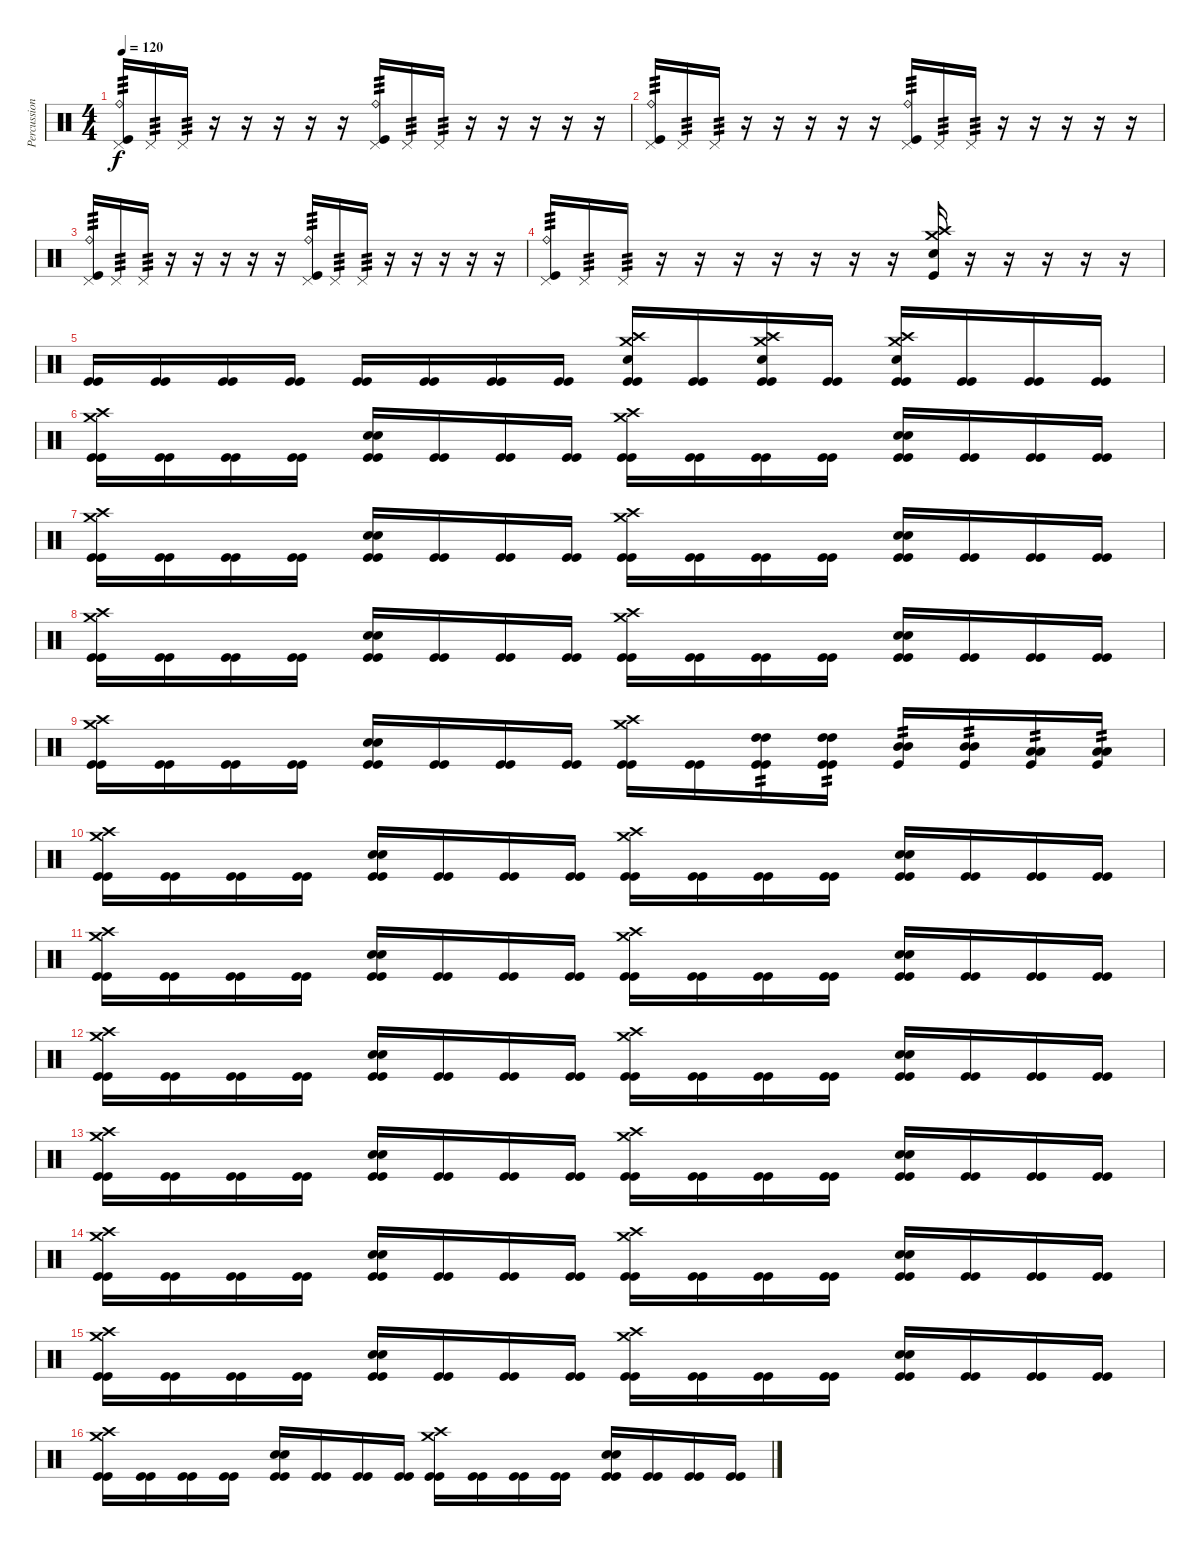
\track ("Percussions" "Percussion") {instrument percussion}
\staff {score}
\articulation defaults
\ts (4 4)
\tempo 120
\clef neutral
\ks c
("Pedal Hi-Hat (hit)" "Ride (bell)" "Kick (hit)").16{tp 3 dy f} "Pedal Hi-Hat (hit)".16{tp 3} "Pedal Hi-Hat (hit)".16{tp 3} r.16 r.16 r.16 r.16 r.16 ("Pedal Hi-Hat (hit)" "Ride (bell)" "Kick (hit)").16{tp 3} "Pedal Hi-Hat (hit)".16{tp 3} "Pedal Hi-Hat (hit)".16{tp 3} r.16 r.16 r.16 r.16 r.16 |
("Pedal Hi-Hat (hit)" "Ride (bell)" "Kick (hit)").16{tp 3} "Pedal Hi-Hat (hit)".16{tp 3} "Pedal Hi-Hat (hit)".16{tp 3} r.16 r.16 r.16 r.16 r.16 ("Pedal Hi-Hat (hit)" "Ride (bell)" "Kick (hit)").16{tp 3} "Pedal Hi-Hat (hit)".16{tp 3} "Pedal Hi-Hat (hit)".16{tp 3} r.16 r.16 r.16 r.16 r.16 |
("Pedal Hi-Hat (hit)" "Ride (bell)" "Kick (hit)").16{tp 3} "Pedal Hi-Hat (hit)".16{tp 3} "Pedal Hi-Hat (hit)".16{tp 3} r.16 r.16 r.16 r.16 r.16 ("Pedal Hi-Hat (hit)" "Ride (bell)" "Kick (hit)").16{tp 3} "Pedal Hi-Hat (hit)".16{tp 3} "Pedal Hi-Hat (hit)".16{tp 3} r.16 r.16 r.16 r.16 r.16 |
("Pedal Hi-Hat (hit)" "Ride (bell)" "Kick (hit)").16{tp 3} "Pedal Hi-Hat (hit)".16{tp 3} "Pedal Hi-Hat (hit)".16{tp 3} r.16 r.16 r.16 r.16 r.16 r.16 r.16 ("Crash high (hit)" "Crash medium (hit)" "Snare (hit) 2" "Kick (hit)").16 r.16 r.16 r.16 r.16 r.16 |
("Kick (hit)" "Kick (hit)").16 ("Kick (hit)" "Kick (hit)").16 ("Kick (hit)" "Kick (hit)").16 ("Kick (hit)" "Kick (hit)").16 ("Kick (hit)" "Kick (hit)").16 ("Kick (hit)" "Kick (hit)").16 ("Kick (hit)" "Kick (hit)").16 ("Kick (hit)" "Kick (hit)").16 ("Crash medium (hit)" "Crash high (hit)" "Snare (hit) 2" "Kick (hit)" "Kick (hit)").16 ("Kick (hit)" "Kick (hit)").16 ("Crash high (hit)" "Crash medium (hit)" "Snare (hit) 2" "Kick (hit)" "Kick (hit)").16 ("Kick (hit)" "Kick (hit)").16 ("Crash high (hit)" "Crash medium (hit)" "Snare (hit) 2" "Kick (hit)" "Kick (hit)").16 ("Kick (hit)" "Kick (hit)").16 ("Kick (hit)" "Kick (hit)").16 ("Kick (hit)" "Kick (hit)").16 |
("Crash medium (hit)" "Crash high (hit)" "Kick (hit)" "Kick (hit)").16 ("Kick (hit)" "Kick (hit)").16 ("Kick (hit)" "Kick (hit)").16 ("Kick (hit)" "Kick (hit)").16 ("Snare (hit) 2" "Snare (hit) 2" "Kick (hit)" "Kick (hit)").16 ("Kick (hit)" "Kick (hit)").16 ("Kick (hit)" "Kick (hit)").16 ("Kick (hit)" "Kick (hit)").16 ("Crash high (hit)" "Crash medium (hit)" "Kick (hit)" "Kick (hit)").16 ("Kick (hit)" "Kick (hit)").16 ("Kick (hit)" "Kick (hit)").16 ("Kick (hit)" "Kick (hit)").16 ("Snare (hit) 2" "Snare (hit) 2" "Kick (hit)" "Kick (hit)").16 ("Kick (hit)" "Kick (hit)").16 ("Kick (hit)" "Kick (hit)").16 ("Kick (hit)" "Kick (hit)").16 |
("Crash medium (hit)" "Crash high (hit)" "Kick (hit)" "Kick (hit)").16 ("Kick (hit)" "Kick (hit)").16 ("Kick (hit)" "Kick (hit)").16 ("Kick (hit)" "Kick (hit)").16 ("Snare (hit) 2" "Snare (hit) 2" "Kick (hit)" "Kick (hit)").16 ("Kick (hit)" "Kick (hit)").16 ("Kick (hit)" "Kick (hit)").16 ("Kick (hit)" "Kick (hit)").16 ("Crash high (hit)" "Crash medium (hit)" "Kick (hit)" "Kick (hit)").16 ("Kick (hit)" "Kick (hit)").16 ("Kick (hit)" "Kick (hit)").16 ("Kick (hit)" "Kick (hit)").16 ("Snare (hit) 2" "Snare (hit) 2" "Kick (hit)" "Kick (hit)").16 ("Kick (hit)" "Kick (hit)").16 ("Kick (hit)" "Kick (hit)").16 ("Kick (hit)" "Kick (hit)").16 |
("Crash medium (hit)" "Crash high (hit)" "Kick (hit)" "Kick (hit)").16 ("Kick (hit)" "Kick (hit)").16 ("Kick (hit)" "Kick (hit)").16 ("Kick (hit)" "Kick (hit)").16 ("Snare (hit) 2" "Snare (hit) 2" "Kick (hit)" "Kick (hit)").16 ("Kick (hit)" "Kick (hit)").16 ("Kick (hit)" "Kick (hit)").16 ("Kick (hit)" "Kick (hit)").16 ("Crash high (hit)" "Crash medium (hit)" "Kick (hit)" "Kick (hit)").16 ("Kick (hit)" "Kick (hit)").16 ("Kick (hit)" "Kick (hit)").16 ("Kick (hit)" "Kick (hit)").16 ("Snare (hit) 2" "Snare (hit) 2" "Kick (hit)" "Kick (hit)").16 ("Kick (hit)" "Kick (hit)").16 ("Kick (hit)" "Kick (hit)").16 ("Kick (hit)" "Kick (hit)").16 |
("Crash medium (hit)" "Crash high (hit)" "Kick (hit)" "Kick (hit)").16 ("Kick (hit)" "Kick (hit)").16 ("Kick (hit)" "Kick (hit)").16 ("Kick (hit)" "Kick (hit)").16 ("Snare (hit) 2" "Snare (hit) 2" "Kick (hit)" "Kick (hit)").16 ("Kick (hit)" "Kick (hit)").16 ("Kick (hit)" "Kick (hit)").16 ("Kick (hit)" "Kick (hit)").16 ("Crash high (hit)" "Crash medium (hit)" "Kick (hit)" "Kick (hit)").16 ("Kick (hit)" "Kick (hit)").16 ("High Tom (hit)" "High Tom (hit)" "Kick (hit)" "Kick (hit)").16{tp 2} ("High Tom (hit)" "High Tom (hit)" "Kick (hit)" "Kick (hit)").16{tp 2} ("Mid Tom (hit)" "Mid Tom (hit)" "Kick (hit)").16{tp 2} ("Mid Tom (hit)" "Mid Tom (hit)" "Kick (hit)").16{tp 2} ("Low Tom (hit)" "Low Tom (hit)" "Kick (hit)").16{tp 2} ("Low Tom (hit)" "Low Tom (hit)" "Kick (hit)").16{tp 2} |
("Crash medium (hit)" "Crash high (hit)" "Kick (hit)" "Kick (hit)").16 ("Kick (hit)" "Kick (hit)").16 ("Kick (hit)" "Kick (hit)").16 ("Kick (hit)" "Kick (hit)").16 ("Snare (hit) 2" "Snare (hit) 2" "Kick (hit)" "Kick (hit)").16 ("Kick (hit)" "Kick (hit)").16 ("Kick (hit)" "Kick (hit)").16 ("Kick (hit)" "Kick (hit)").16 ("Crash high (hit)" "Crash medium (hit)" "Kick (hit)" "Kick (hit)").16 ("Kick (hit)" "Kick (hit)").16 ("Kick (hit)" "Kick (hit)").16 ("Kick (hit)" "Kick (hit)").16 ("Snare (hit) 2" "Snare (hit) 2" "Kick (hit)" "Kick (hit)").16 ("Kick (hit)" "Kick (hit)").16 ("Kick (hit)" "Kick (hit)").16 ("Kick (hit)" "Kick (hit)").16 |
("Crash medium (hit)" "Crash high (hit)" "Kick (hit)" "Kick (hit)").16 ("Kick (hit)" "Kick (hit)").16 ("Kick (hit)" "Kick (hit)").16 ("Kick (hit)" "Kick (hit)").16 ("Snare (hit) 2" "Snare (hit) 2" "Kick (hit)" "Kick (hit)").16 ("Kick (hit)" "Kick (hit)").16 ("Kick (hit)" "Kick (hit)").16 ("Kick (hit)" "Kick (hit)").16 ("Crash high (hit)" "Crash medium (hit)" "Kick (hit)" "Kick (hit)").16 ("Kick (hit)" "Kick (hit)").16 ("Kick (hit)" "Kick (hit)").16 ("Kick (hit)" "Kick (hit)").16 ("Snare (hit) 2" "Snare (hit) 2" "Kick (hit)" "Kick (hit)").16 ("Kick (hit)" "Kick (hit)").16 ("Kick (hit)" "Kick (hit)").16 ("Kick (hit)" "Kick (hit)").16 |
("Crash medium (hit)" "Crash high (hit)" "Kick (hit)" "Kick (hit)").16 ("Kick (hit)" "Kick (hit)").16 ("Kick (hit)" "Kick (hit)").16 ("Kick (hit)" "Kick (hit)").16 ("Snare (hit) 2" "Snare (hit) 2" "Kick (hit)" "Kick (hit)").16 ("Kick (hit)" "Kick (hit)").16 ("Kick (hit)" "Kick (hit)").16 ("Kick (hit)" "Kick (hit)").16 ("Crash high (hit)" "Crash medium (hit)" "Kick (hit)" "Kick (hit)").16 ("Kick (hit)" "Kick (hit)").16 ("Kick (hit)" "Kick (hit)").16 ("Kick (hit)" "Kick (hit)").16 ("Snare (hit) 2" "Snare (hit) 2" "Kick (hit)" "Kick (hit)").16 ("Kick (hit)" "Kick (hit)").16 ("Kick (hit)" "Kick (hit)").16 ("Kick (hit)" "Kick (hit)").16 |
("Crash medium (hit)" "Crash high (hit)" "Kick (hit)" "Kick (hit)").16 ("Kick (hit)" "Kick (hit)").16 ("Kick (hit)" "Kick (hit)").16 ("Kick (hit)" "Kick (hit)").16 ("Snare (hit) 2" "Snare (hit) 2" "Kick (hit)" "Kick (hit)").16 ("Kick (hit)" "Kick (hit)").16 ("Kick (hit)" "Kick (hit)").16 ("Kick (hit)" "Kick (hit)").16 ("Crash high (hit)" "Crash medium (hit)" "Kick (hit)" "Kick (hit)").16 ("Kick (hit)" "Kick (hit)").16 ("Kick (hit)" "Kick (hit)").16 ("Kick (hit)" "Kick (hit)").16 ("Snare (hit) 2" "Snare (hit) 2" "Kick (hit)" "Kick (hit)").16 ("Kick (hit)" "Kick (hit)").16 ("Kick (hit)" "Kick (hit)").16 ("Kick (hit)" "Kick (hit)").16 |
("Crash medium (hit)" "Crash high (hit)" "Kick (hit)" "Kick (hit)").16 ("Kick (hit)" "Kick (hit)").16 ("Kick (hit)" "Kick (hit)").16 ("Kick (hit)" "Kick (hit)").16 ("Snare (hit) 2" "Snare (hit) 2" "Kick (hit)" "Kick (hit)").16 ("Kick (hit)" "Kick (hit)").16 ("Kick (hit)" "Kick (hit)").16 ("Kick (hit)" "Kick (hit)").16 ("Crash high (hit)" "Crash medium (hit)" "Kick (hit)" "Kick (hit)").16 ("Kick (hit)" "Kick (hit)").16 ("Kick (hit)" "Kick (hit)").16 ("Kick (hit)" "Kick (hit)").16 ("Snare (hit) 2" "Snare (hit) 2" "Kick (hit)" "Kick (hit)").16 ("Kick (hit)" "Kick (hit)").16 ("Kick (hit)" "Kick (hit)").16 ("Kick (hit)" "Kick (hit)").16 |
("Crash medium (hit)" "Crash high (hit)" "Kick (hit)" "Kick (hit)").16 ("Kick (hit)" "Kick (hit)").16 ("Kick (hit)" "Kick (hit)").16 ("Kick (hit)" "Kick (hit)").16 ("Snare (hit) 2" "Snare (hit) 2" "Kick (hit)" "Kick (hit)").16 ("Kick (hit)" "Kick (hit)").16 ("Kick (hit)" "Kick (hit)").16 ("Kick (hit)" "Kick (hit)").16 ("Crash high (hit)" "Crash medium (hit)" "Kick (hit)" "Kick (hit)").16 ("Kick (hit)" "Kick (hit)").16 ("Kick (hit)" "Kick (hit)").16 ("Kick (hit)" "Kick (hit)").16 ("Snare (hit) 2" "Snare (hit) 2" "Kick (hit)" "Kick (hit)").16 ("Kick (hit)" "Kick (hit)").16 ("Kick (hit)" "Kick (hit)").16 ("Kick (hit)" "Kick (hit)").16 |
("Crash medium (hit)" "Crash high (hit)" "Kick (hit)" "Kick (hit)").16 ("Kick (hit)" "Kick (hit)").16 ("Kick (hit)" "Kick (hit)").16 ("Kick (hit)" "Kick (hit)").16 ("Snare (hit) 2" "Snare (hit) 2" "Kick (hit)" "Kick (hit)").16 ("Kick (hit)" "Kick (hit)").16 ("Kick (hit)" "Kick (hit)").16 ("Kick (hit)" "Kick (hit)").16 ("Crash high (hit)" "Crash medium (hit)" "Kick (hit)" "Kick (hit)").16 ("Kick (hit)" "Kick (hit)").16 ("Kick (hit)" "Kick (hit)").16 ("Kick (hit)" "Kick (hit)").16 ("Snare (hit) 2" "Snare (hit) 2" "Kick (hit)" "Kick (hit)").16 ("Kick (hit)" "Kick (hit)").16 ("Kick (hit)" "Kick (hit)").16 ("Kick (hit)" "Kick (hit)").16
